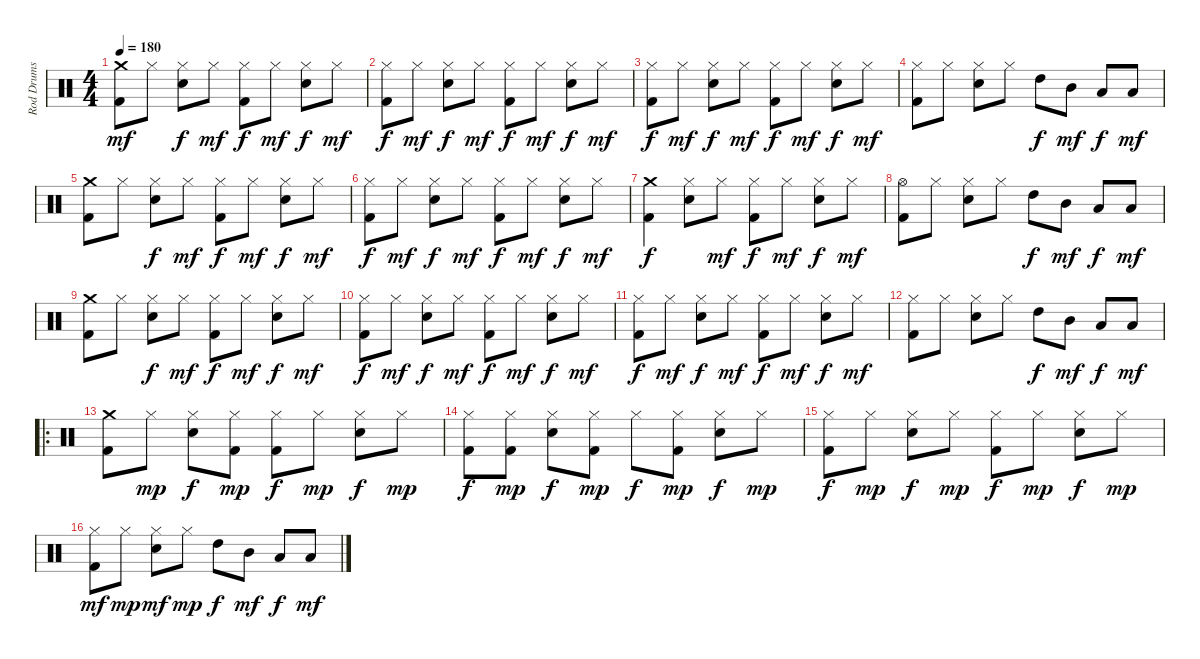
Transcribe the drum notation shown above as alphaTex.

\track ("Rod Drums" "Rod Drums") {instrument percussion}
\staff {score}
\articulation defaults
\ts (4 4)
\tempo 180
\clef neutral
\ks c
("Crash medium (hit)" "Kick (hit) 2").8{dy mf} "Hi-Hat (closed)".8 ("Hi-Hat (closed)" "Snare (hit) 2").8{dy f} "Hi-Hat (closed)".8{dy mf} ("Hi-Hat (closed)" "Kick (hit) 2").8{dy f} "Hi-Hat (closed)".8{dy mf} ("Hi-Hat (closed)" "Snare (hit) 2").8{dy f} "Hi-Hat (closed)".8{dy mf} |
("Hi-Hat (closed)" "Kick (hit) 2").8{dy f} "Hi-Hat (closed)".8{dy mf} ("Hi-Hat (closed)" "Snare (hit) 2").8{dy f} "Hi-Hat (closed)".8{dy mf} ("Hi-Hat (closed)" "Kick (hit) 2").8{dy f} "Hi-Hat (closed)".8{dy mf} ("Hi-Hat (closed)" "Snare (hit) 2").8{dy f} "Hi-Hat (closed)".8{dy mf} |
("Hi-Hat (closed)" "Kick (hit) 2").8{dy f} "Hi-Hat (closed)".8{dy mf} ("Hi-Hat (closed)" "Snare (hit) 2").8{dy f} "Hi-Hat (closed)".8{dy mf} ("Hi-Hat (closed)" "Kick (hit) 2").8{dy f} "Hi-Hat (closed)".8{dy mf} ("Hi-Hat (closed)" "Snare (hit) 2").8{dy f} "Hi-Hat (closed)".8{dy mf} |
("Hi-Hat (closed)" "Kick (hit) 2").8 "Hi-Hat (closed)".8 ("Hi-Hat (closed)" "Snare (hit) 2").8 "Hi-Hat (closed)".8 "High Tom (hit)".8{dy f} "Mid Tom (hit)".8{dy mf} "Low Tom (hit)".8{dy f} "Low Tom (hit)".8{dy mf} |
("Crash medium (hit)" "Kick (hit) 2").8 "Hi-Hat (closed)".8 ("Hi-Hat (closed)" "Snare (hit) 2").8{dy f} "Hi-Hat (closed)".8{dy mf} ("Hi-Hat (closed)" "Kick (hit) 2").8{dy f} "Hi-Hat (closed)".8{dy mf} ("Hi-Hat (closed)" "Snare (hit) 2").8{dy f} "Hi-Hat (closed)".8{dy mf} |
("Hi-Hat (closed)" "Kick (hit) 2").8{dy f} "Hi-Hat (closed)".8{dy mf} ("Hi-Hat (closed)" "Snare (hit) 2").8{dy f} "Hi-Hat (closed)".8{dy mf} ("Hi-Hat (closed)" "Kick (hit) 2").8{dy f} "Hi-Hat (closed)".8{dy mf} ("Hi-Hat (closed)" "Snare (hit) 2").8{dy f} "Hi-Hat (closed)".8{dy mf} |
("Crash medium (hit)" "Kick (hit) 2").4{dy f} ("Hi-Hat (closed)" "Snare (hit) 2").8 "Hi-Hat (closed)".8{dy mf} ("Hi-Hat (closed)" "Kick (hit) 2").8{dy f} "Hi-Hat (closed)".8{dy mf} ("Hi-Hat (closed)" "Snare (hit) 2").8{dy f} "Hi-Hat (closed)".8{dy mf} |
("Hi-Hat (open)" "Kick (hit) 2").8 "Hi-Hat (closed)".8 ("Hi-Hat (closed)" "Snare (hit) 2").8 "Hi-Hat (closed)".8 "High Tom (hit)".8{dy f} "Mid Tom (hit)".8{dy mf} "Low Tom (hit)".8{dy f} "Low Tom (hit)".8{dy mf} |
("Crash medium (hit)" "Kick (hit) 2").8 "Hi-Hat (closed)".8 ("Hi-Hat (closed)" "Snare (hit) 2").8{dy f} "Hi-Hat (closed)".8{dy mf} ("Hi-Hat (closed)" "Kick (hit) 2").8{dy f} "Hi-Hat (closed)".8{dy mf} ("Hi-Hat (closed)" "Snare (hit) 2").8{dy f} "Hi-Hat (closed)".8{dy mf} |
("Hi-Hat (closed)" "Kick (hit) 2").8{dy f} "Hi-Hat (closed)".8{dy mf} ("Hi-Hat (closed)" "Snare (hit) 2").8{dy f} "Hi-Hat (closed)".8{dy mf} ("Hi-Hat (closed)" "Kick (hit) 2").8{dy f} "Hi-Hat (closed)".8{dy mf} ("Hi-Hat (closed)" "Snare (hit) 2").8{dy f} "Hi-Hat (closed)".8{dy mf} |
("Hi-Hat (closed)" "Kick (hit) 2").8{dy f} "Hi-Hat (closed)".8{dy mf} ("Hi-Hat (closed)" "Snare (hit) 2").8{dy f} "Hi-Hat (closed)".8{dy mf} ("Hi-Hat (closed)" "Kick (hit) 2").8{dy f} "Hi-Hat (closed)".8{dy mf} ("Hi-Hat (closed)" "Snare (hit) 2").8{dy f} "Hi-Hat (closed)".8{dy mf} |
("Hi-Hat (closed)" "Kick (hit) 2").8 "Hi-Hat (closed)".8 ("Hi-Hat (closed)" "Snare (hit) 2").8 "Hi-Hat (closed)".8 "High Tom (hit)".8{dy f} "Mid Tom (hit)".8{dy mf} "Low Tom (hit)".8{dy f} "Low Tom (hit)".8{dy mf} |
\ro
("Crash medium (hit)" "Kick (hit) 2").8 "Hi-Hat (closed)".8{dy mp} ("Hi-Hat (closed)" "Snare (hit) 2").8{dy f} ("Hi-Hat (closed)" "Kick (hit) 2").8{dy mp} ("Hi-Hat (closed)" "Kick (hit) 2").8{dy f} "Hi-Hat (closed)".8{dy mp} ("Hi-Hat (closed)" "Snare (hit) 2").8{dy f} "Hi-Hat (closed)".8{dy mp} |
("Hi-Hat (closed)" "Kick (hit) 2").8{dy f} ("Hi-Hat (closed)" "Kick (hit) 2").8{dy mp} ("Hi-Hat (closed)" "Snare (hit) 2").8{dy f} ("Hi-Hat (closed)" "Kick (hit) 2").8{dy mp} "Hi-Hat (closed)".8{dy f} ("Hi-Hat (closed)" "Kick (hit) 2").8{dy mp} ("Hi-Hat (closed)" "Snare (hit) 2").8{dy f} "Hi-Hat (closed)".8{dy mp} |
("Hi-Hat (closed)" "Kick (hit) 2").8{dy f} "Hi-Hat (closed)".8{dy mp} ("Hi-Hat (closed)" "Snare (hit) 2").8{dy f} "Hi-Hat (closed)".8{dy mp} ("Hi-Hat (closed)" "Kick (hit) 2").8{dy f} "Hi-Hat (closed)".8{dy mp} ("Hi-Hat (closed)" "Snare (hit) 2").8{dy f} "Hi-Hat (closed)".8{dy mp} |
("Hi-Hat (closed)" "Kick (hit) 2").8{dy mf} "Hi-Hat (closed)".8{dy mp} ("Hi-Hat (closed)" "Snare (hit) 2").8{dy mf} "Hi-Hat (closed)".8{dy mp} "High Tom (hit)".8{dy f} "Mid Tom (hit)".8{dy mf} "Low Tom (hit)".8{dy f} "Low Tom (hit)".8{dy mf}
